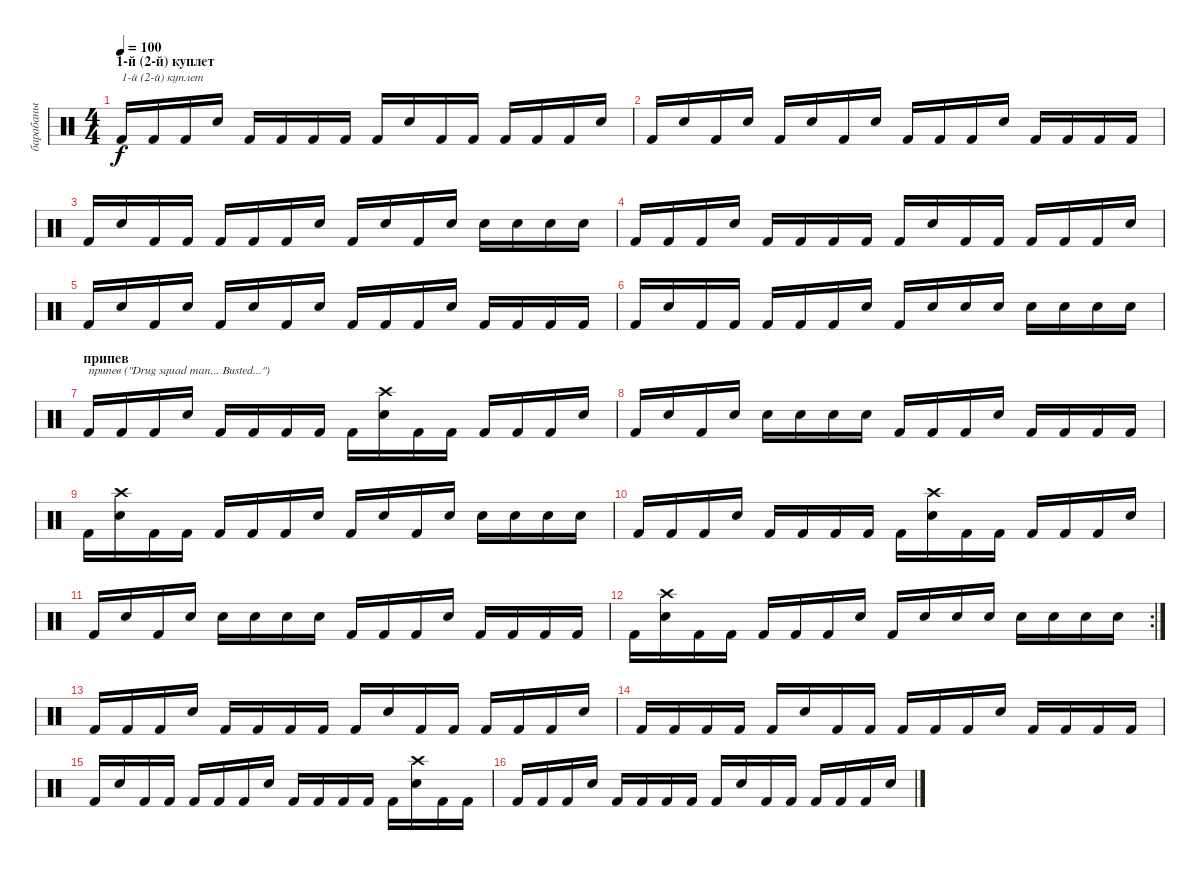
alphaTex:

\track ("барабаны" "барабаны") {instrument percussion}
\staff {score}
\articulation defaults
\ts (4 4)
\section ("" "1-й (2-й) куплет")
\tempo 100
\clef neutral
\ks c "Kick (hit) 2".16{txt "1-й (2-й) куплет" dy f} "Kick (hit) 2".16 "Kick (hit) 2".16 "Electric Snare (hit)".16 "Kick (hit) 2".16 "Kick (hit) 2".16 "Kick (hit) 2".16 "Kick (hit) 2".16 "Kick (hit) 2".16 "Electric Snare (hit)".16 "Kick (hit) 2".16 "Kick (hit) 2".16 "Kick (hit) 2".16 "Kick (hit) 2".16 "Kick (hit) 2".16 "Electric Snare (hit)".16
|
"Kick (hit) 2".16 "Electric Snare (hit)".16 "Kick (hit) 2".16 "Electric Snare (hit)".16 "Kick (hit) 2".16 "Electric Snare (hit)".16 "Kick (hit) 2".16 "Electric Snare (hit)".16 "Kick (hit) 2".16 "Kick (hit) 2".16 "Kick (hit) 2".16 "Electric Snare (hit)".16 "Kick (hit) 2".16 "Kick (hit) 2".16 "Kick (hit) 2".16 "Kick (hit) 2".16 |
"Kick (hit) 2".16 "Electric Snare (hit)".16 "Kick (hit) 2".16 "Kick (hit) 2".16 "Kick (hit) 2".16 "Kick (hit) 2".16 "Kick (hit) 2".16 "Electric Snare (hit)".16 "Kick (hit) 2".16 "Electric Snare (hit)".16 "Kick (hit) 2".16 "Electric Snare (hit)".16 "Electric Snare (hit)".16 "Electric Snare (hit)".16 "Electric Snare (hit)".16 "Electric Snare (hit)".16 |
"Kick (hit) 2".16 "Kick (hit) 2".16 "Kick (hit) 2".16 "Electric Snare (hit)".16 "Kick (hit) 2".16 "Kick (hit) 2".16 "Kick (hit) 2".16 "Kick (hit) 2".16 "Kick (hit) 2".16 "Electric Snare (hit)".16 "Kick (hit) 2".16 "Kick (hit) 2".16 "Kick (hit) 2".16 "Kick (hit) 2".16 "Kick (hit) 2".16 "Electric Snare (hit)".16 |
"Kick (hit) 2".16 "Electric Snare (hit)".16 "Kick (hit) 2".16 "Electric Snare (hit)".16 "Kick (hit) 2".16 "Electric Snare (hit)".16 "Kick (hit) 2".16 "Electric Snare (hit)".16 "Kick (hit) 2".16 "Kick (hit) 2".16 "Kick (hit) 2".16 "Electric Snare (hit)".16 "Kick (hit) 2".16 "Kick (hit) 2".16 "Kick (hit) 2".16 "Kick (hit) 2".16 |
"Kick (hit) 2".16 "Electric Snare (hit)".16 "Kick (hit) 2".16 "Kick (hit) 2".16 "Kick (hit) 2".16 "Kick (hit) 2".16 "Kick (hit) 2".16 "Electric Snare (hit)".16 "Kick (hit) 2".16 "Electric Snare (hit)".16 "Electric Snare (hit)".16 "Electric Snare (hit)".16 "Electric Snare (hit)".16 "Electric Snare (hit)".16 "Electric Snare (hit)".16 "Electric Snare (hit)".16 |
\section ("" "припев")
"Kick (hit) 2".16{txt "припев (\"Drug squad man... Busted...\")"} "Kick (hit) 2".16 "Kick (hit) 2".16 "Electric Snare (hit)".16 "Kick (hit) 2".16 "Kick (hit) 2".16 "Kick (hit) 2".16 "Kick (hit) 2".16 "Kick (hit) 2".16 ("Crash high (hit)" "Electric Snare (hit)").16 "Kick (hit) 2".16 "Kick (hit) 2".16 "Kick (hit) 2".16 "Kick (hit) 2".16 "Kick (hit) 2".16 "Electric Snare (hit)".16 |
"Kick (hit) 2".16 "Electric Snare (hit)".16 "Kick (hit) 2".16 "Electric Snare (hit)".16 "Electric Snare (hit)".16 "Electric Snare (hit)".16 "Electric Snare (hit)".16 "Electric Snare (hit)".16 "Kick (hit) 2".16 "Kick (hit) 2".16 "Kick (hit) 2".16 "Electric Snare (hit)".16 "Kick (hit) 2".16 "Kick (hit) 2".16 "Kick (hit) 2".16 "Kick (hit) 2".16 |
"Kick (hit) 2".16 ("Crash high (hit)" "Electric Snare (hit)").16 "Kick (hit) 2".16 "Kick (hit) 2".16 "Kick (hit) 2".16 "Kick (hit) 2".16 "Kick (hit) 2".16 "Electric Snare (hit)".16 "Kick (hit) 2".16 "Electric Snare (hit)".16 "Kick (hit) 2".16 "Electric Snare (hit)".16 "Electric Snare (hit)".16 "Electric Snare (hit)".16 "Electric Snare (hit)".16 "Electric Snare (hit)".16 |
"Kick (hit) 2".16 "Kick (hit) 2".16 "Kick (hit) 2".16 "Electric Snare (hit)".16 "Kick (hit) 2".16 "Kick (hit) 2".16 "Kick (hit) 2".16 "Kick (hit) 2".16 "Kick (hit) 2".16 ("Crash high (hit)" "Electric Snare (hit)").16 "Kick (hit) 2".16 "Kick (hit) 2".16 "Kick (hit) 2".16 "Kick (hit) 2".16 "Kick (hit) 2".16 "Electric Snare (hit)".16 |
"Kick (hit) 2".16 "Electric Snare (hit)".16 "Kick (hit) 2".16 "Electric Snare (hit)".16 "Electric Snare (hit)".16 "Electric Snare (hit)".16 "Electric Snare (hit)".16 "Electric Snare (hit)".16 "Kick (hit) 2".16 "Kick (hit) 2".16 "Kick (hit) 2".16 "Electric Snare (hit)".16 "Kick (hit) 2".16 "Kick (hit) 2".16 "Kick (hit) 2".16 "Kick (hit) 2".16 |
\rc 2 "Kick (hit) 2".16
("Crash high (hit)" "Electric Snare (hit)").16 "Kick (hit) 2".16 "Kick (hit) 2".16 "Kick (hit) 2".16 "Kick (hit) 2".16 "Kick (hit) 2".16 "Electric Snare (hit)".16 "Kick (hit) 2".16 "Electric Snare (hit)".16 "Electric Snare (hit)".16 "Electric Snare (hit)".16 "Electric Snare (hit)".16 "Electric Snare (hit)".16 "Electric Snare (hit)".16 "Electric Snare (hit)".16 |
"Kick (hit) 2".16 "Kick (hit) 2".16 "Kick (hit) 2".16 "Electric Snare (hit)".16 "Kick (hit) 2".16 "Kick (hit) 2".16 "Kick (hit) 2".16 "Kick (hit) 2".16 "Kick (hit) 2".16 "Electric Snare (hit)".16 "Kick (hit) 2".16 "Kick (hit) 2".16 "Kick (hit) 2".16 "Kick (hit) 2".16 "Kick (hit) 2".16 "Electric Snare (hit)".16 |
"Kick (hit) 2".16 "Kick (hit) 2".16 "Kick (hit) 2".16 "Kick (hit) 2".16 "Kick (hit) 2".16 "Electric Snare (hit)".16 "Kick (hit) 2".16 "Kick (hit) 2".16 "Kick (hit) 2".16 "Kick (hit) 2".16 "Kick (hit) 2".16 "Electric Snare (hit)".16 "Kick (hit) 2".16 "Kick (hit) 2".16 "Kick (hit) 2".16 "Kick (hit) 2".16 |
"Kick (hit) 2".16 "Electric Snare (hit)".16 "Kick (hit) 2".16 "Kick (hit) 2".16 "Kick (hit) 2".16 "Kick (hit) 2".16 "Kick (hit) 2".16 "Electric Snare (hit)".16 "Kick (hit) 2".16 "Kick (hit) 2".16 "Kick (hit) 2".16 "Kick (hit) 2".16 "Kick (hit) 2".16 ("Crash high (hit)" "Electric Snare (hit)").16 "Kick (hit) 2".16 "Kick (hit) 2".16 |
"Kick (hit) 2".16 "Kick (hit) 2".16 "Kick (hit) 2".16 "Electric Snare (hit)".16 "Kick (hit) 2".16 "Kick (hit) 2".16 "Kick (hit) 2".16 "Kick (hit) 2".16 "Kick (hit) 2".16 "Electric Snare (hit)".16 "Kick (hit) 2".16 "Kick (hit) 2".16 "Kick (hit) 2".16 "Kick (hit) 2".16 "Kick (hit) 2".16 "Electric Snare (hit)".16
